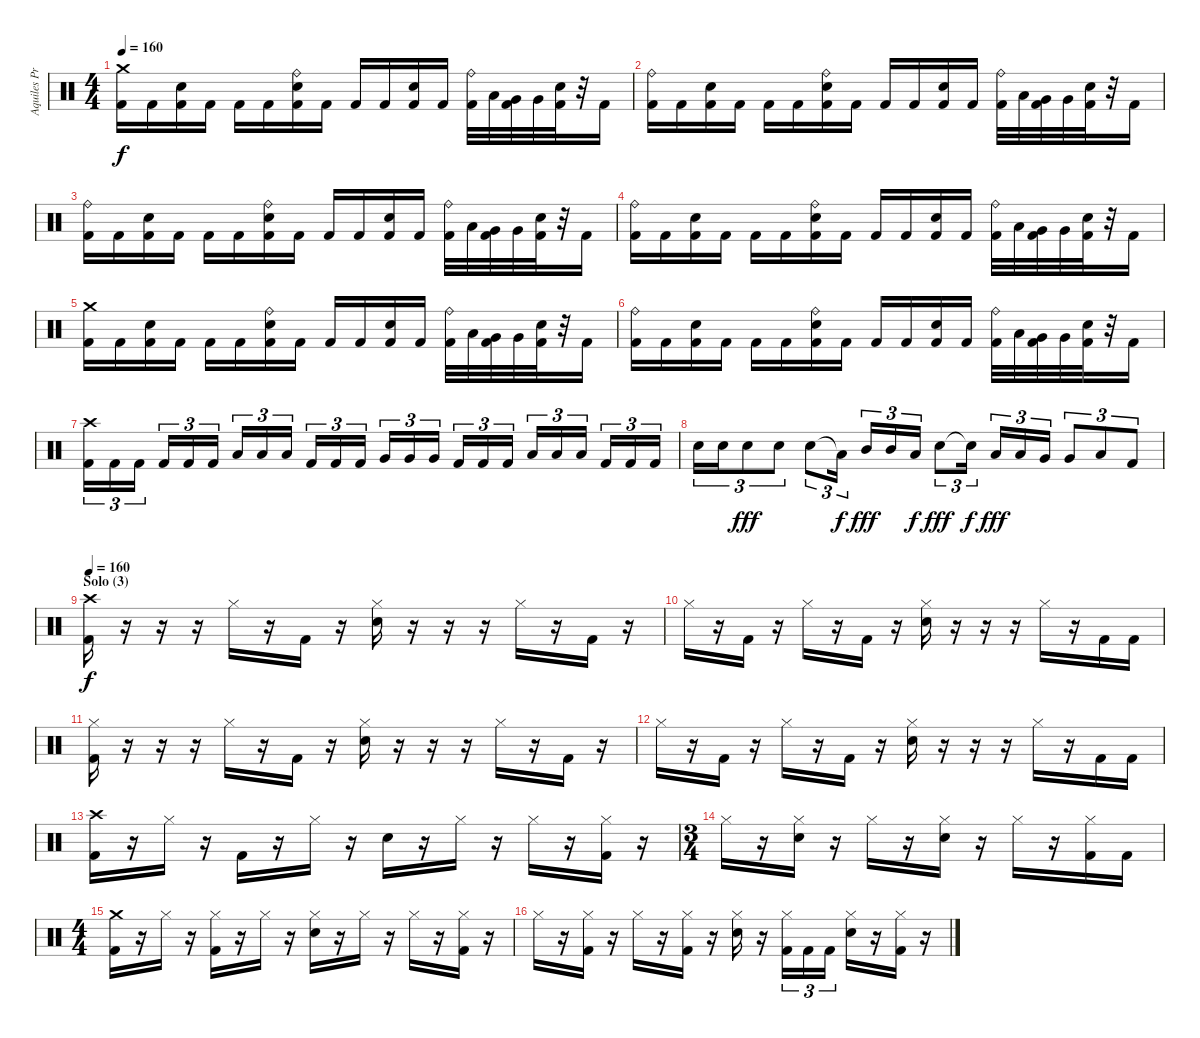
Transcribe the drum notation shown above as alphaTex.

\track ("Aquiles Priester" "Aquiles Pr") {instrument percussion}
\staff {score}
\articulation defaults
\ts (4 4)
\tempo 160
\clef neutral
\ks c
("Crash medium (hit)" "Kick (hit) 2").16{dy f} "Kick (hit) 2".16 ("Snare (hit) 2" "Kick (hit) 2").16 "Kick (hit) 2".16 "Kick (hit) 2".16 "Kick (hit) 2".16 ("Ride (bell)" "Snare (hit) 2" "Kick (hit) 2").16 "Kick (hit) 2".16 "Kick (hit) 2".16 "Kick (hit) 2".16 ("Snare (hit) 2" "Kick (hit) 2").16 "Kick (hit) 2".16 ("Ride (bell)" "Kick (hit) 2").32 "Low Tom (hit)".32 ("Very Low Tom (hit)" "Kick (hit) 2").32 "Very Low Tom (hit)".32 ("Snare (hit) 2" "Kick (hit) 2").32 r.32 "Kick (hit) 2".16 |
("Ride (bell)" "Kick (hit) 2").16 "Kick (hit) 2".16 ("Snare (hit) 2" "Kick (hit) 2").16 "Kick (hit) 2".16 "Kick (hit) 2".16 "Kick (hit) 2".16 ("Ride (bell)" "Snare (hit) 2" "Kick (hit) 2").16 "Kick (hit) 2".16 "Kick (hit) 2".16 "Kick (hit) 2".16 ("Snare (hit) 2" "Kick (hit) 2").16 "Kick (hit) 2".16 ("Ride (bell)" "Kick (hit) 2").32 "Low Tom (hit)".32 ("Very Low Tom (hit)" "Kick (hit) 2").32 "Very Low Tom (hit)".32 ("Snare (hit) 2" "Kick (hit) 2").32 r.32 "Kick (hit) 2".16 |
("Ride (bell)" "Kick (hit) 2").16 "Kick (hit) 2".16 ("Snare (hit) 2" "Kick (hit) 2").16 "Kick (hit) 2".16 "Kick (hit) 2".16 "Kick (hit) 2".16 ("Ride (bell)" "Snare (hit) 2" "Kick (hit) 2").16 "Kick (hit) 2".16 "Kick (hit) 2".16 "Kick (hit) 2".16 ("Snare (hit) 2" "Kick (hit) 2").16 "Kick (hit) 2".16 ("Ride (bell)" "Kick (hit) 2").32 "Low Tom (hit)".32 ("Very Low Tom (hit)" "Kick (hit) 2").32 "Very Low Tom (hit)".32 ("Snare (hit) 2" "Kick (hit) 2").32 r.32 "Kick (hit) 2".16 |
("Ride (bell)" "Kick (hit) 2").16 "Kick (hit) 2".16 ("Snare (hit) 2" "Kick (hit) 2").16 "Kick (hit) 2".16 "Kick (hit) 2".16 "Kick (hit) 2".16 ("Ride (bell)" "Snare (hit) 2" "Kick (hit) 2").16 "Kick (hit) 2".16 "Kick (hit) 2".16 "Kick (hit) 2".16 ("Snare (hit) 2" "Kick (hit) 2").16 "Kick (hit) 2".16 ("Ride (bell)" "Kick (hit) 2").32 "Low Tom (hit)".32 ("Very Low Tom (hit)" "Kick (hit) 2").32 "Very Low Tom (hit)".32 ("Snare (hit) 2" "Kick (hit) 2").32 r.32 "Kick (hit) 2".16 |
("Crash medium (hit)" "Kick (hit) 2").16 "Kick (hit) 2".16 ("Snare (hit) 2" "Kick (hit) 2").16 "Kick (hit) 2".16 "Kick (hit) 2".16 "Kick (hit) 2".16 ("Ride (bell)" "Snare (hit) 2" "Kick (hit) 2").16 "Kick (hit) 2".16 "Kick (hit) 2".16 "Kick (hit) 2".16 ("Snare (hit) 2" "Kick (hit) 2").16 "Kick (hit) 2".16 ("Ride (bell)" "Kick (hit) 2").32 "Low Tom (hit)".32 ("Very Low Tom (hit)" "Kick (hit) 2").32 "Very Low Tom (hit)".32 ("Snare (hit) 2" "Kick (hit) 2").32 r.32 "Kick (hit) 2".16 |
("Ride (bell)" "Kick (hit) 2").16 "Kick (hit) 2".16 ("Snare (hit) 2" "Kick (hit) 2").16 "Kick (hit) 2".16 "Kick (hit) 2".16 "Kick (hit) 2".16 ("Ride (bell)" "Snare (hit) 2" "Kick (hit) 2").16 "Kick (hit) 2".16 "Kick (hit) 2".16 "Kick (hit) 2".16 ("Snare (hit) 2" "Kick (hit) 2").16 "Kick (hit) 2".16 ("Ride (bell)" "Kick (hit) 2").32 "Low Tom (hit)".32 ("Very Low Tom (hit)" "Kick (hit) 2").32 "Very Low Tom (hit)".32 ("Snare (hit) 2" "Kick (hit) 2").32 r.32 "Kick (hit) 2".16 |
("Crash high (hit)" "Kick (hit) 2").16{tu (3 2)} "Kick (hit) 2".16{tu (3 2)} "Kick (hit) 2".16{tu (3 2)} "Kick (hit) 2".16{tu (3 2)} "Kick (hit) 2".16{tu (3 2)} "Kick (hit) 2".16{tu (3 2)} "Low Tom (hit)".16{tu (3 2)} "Low Tom (hit)".16{tu (3 2)} "Low Tom (hit)".16{tu (3 2)} "Kick (hit) 2".16{tu (3 2)} "Kick (hit) 2".16{tu (3 2)} "Kick (hit) 2".16{tu (3 2)} "Very Low Tom (hit)".16{tu (3 2)} "Very Low Tom (hit)".16{tu (3 2)} "Very Low Tom (hit)".16{tu (3 2)} "Kick (hit) 2".16{tu (3 2)} "Kick (hit) 2".16{tu (3 2)} "Kick (hit) 2".16{tu (3 2)} "Low Tom (hit)".16{tu (3 2)} "Low Tom (hit)".16{tu (3 2)} "Low Tom (hit)".16{tu (3 2)} "Kick (hit) 2".16{tu (3 2)} "Kick (hit) 2".16{tu (3 2)} "Kick (hit) 2".16{tu (3 2)} |
"Snare (hit) 2".16{tu (3 2)} "Snare (hit) 2".16{tu (3 2)} "Snare (hit) 2".8{tu (3 2) dy fff} "Snare (hit) 2".8{tu (3 2)} "Snare (hit) 2".8{tu (3 2)} "Low Tom (hit)"{t}.16{tu (3 2) dy f} "Mid Tom (hit)".16{tu (3 2) dy fff} "Mid Tom (hit)".16{tu (3 2)} "Low Tom (hit)".16{tu (3 2) dy f} "Snare (hit) 2".8{tu (3 2) dy fff} "Snare (hit)"{t}.16{tu (3 2) dy f} "Low Tom (hit)".16{tu (3 2) dy fff} "Low Tom (hit)".16{tu (3 2)} "Very Low Tom (hit)".16{tu (3 2)} "Very Low Tom (hit)".8{tu (3 2)} "Low Floor Tom (hit)".8{tu (3 2)} "Kick (hit) 2".8{tu (3 2)} |
\section ("" "Solo (3)")
\tempo 160
("Crash high (hit)" "Kick (hit) 2").16{dy f} r.16 r.16 r.16 "Hi-Hat (closed)".16 r.16 "Kick (hit) 2".16 r.16 ("Hi-Hat (closed)" "Snare (hit) 2").16 r.16 r.16 r.16 "Hi-Hat (closed)".16 r.16 "Kick (hit) 2".16 r.16 |
"Hi-Hat (closed)".16 r.16 "Kick (hit) 2".16 r.16 "Hi-Hat (closed)".16 r.16 "Kick (hit) 2".16 r.16 ("Hi-Hat (closed)" "Snare (hit) 2").16 r.16 r.16 r.16 "Hi-Hat (closed)".16 r.16 "Kick (hit) 2".16 "Kick (hit) 2".16 |
("Hi-Hat (closed)" "Kick (hit) 2").16 r.16 r.16 r.16 "Hi-Hat (closed)".16 r.16 "Kick (hit) 2".16 r.16 ("Hi-Hat (closed)" "Snare (hit) 2").16 r.16 r.16 r.16 "Hi-Hat (closed)".16 r.16 "Kick (hit) 2".16 r.16 |
"Hi-Hat (closed)".16 r.16 "Kick (hit) 2".16 r.16 "Hi-Hat (closed)".16 r.16 "Kick (hit) 2".16 r.16 ("Hi-Hat (closed)" "Snare (hit) 2").16 r.16 r.16 r.16 "Hi-Hat (closed)".16 r.16 "Kick (hit) 2".16 "Kick (hit) 2".16 |
("Crash high (hit)" "Kick (hit) 2").16 r.16 "Hi-Hat (closed)".16 r.16 "Kick (hit) 2".16 r.16 "Hi-Hat (closed)".16 r.16 "Snare (hit) 2".16 r.16 "Hi-Hat (closed)".16 r.16 "Hi-Hat (closed)".16 r.16 ("Hi-Hat (closed)" "Kick (hit) 2").16 r.16 |
\ts (3 4)
"Hi-Hat (closed)".16 r.16 ("Hi-Hat (closed)" "Snare (hit) 2").16 r.16 "Hi-Hat (closed)".16 r.16 ("Hi-Hat (closed)" "Snare (hit) 2").16 r.16 "Hi-Hat (closed)".16 r.16 ("Hi-Hat (closed)" "Kick (hit) 2").16 "Kick (hit) 2".16 |
\ts (4 4)
("Crash medium (hit)" "Kick (hit) 2").16 r.16 "Hi-Hat (closed)".16 r.16 ("Hi-Hat (closed)" "Kick (hit) 2").16 r.16 "Hi-Hat (closed)".16 r.16 ("Hi-Hat (closed)" "Snare (hit) 2").16 r.16 "Hi-Hat (closed)".16 r.16 "Hi-Hat (closed)".16 r.16 ("Hi-Hat (closed)" "Kick (hit) 2").16 r.16 |
"Hi-Hat (closed)".16 r.16 ("Hi-Hat (closed)" "Kick (hit) 2").16 r.16 "Hi-Hat (closed)".16 r.16 ("Hi-Hat (closed)" "Kick (hit) 2").16 r.16 ("Hi-Hat (closed)" "Snare (hit) 2").16 r.16 ("Hi-Hat (closed)" "Kick (hit) 2").16{tu (3 2)} "Kick (hit) 2".16{tu (3 2)} "Kick (hit) 2".16{tu (3 2)} ("Hi-Hat (closed)" "Snare (hit) 2").16 r.16 ("Hi-Hat (closed)" "Kick (hit) 2").16 r.16
